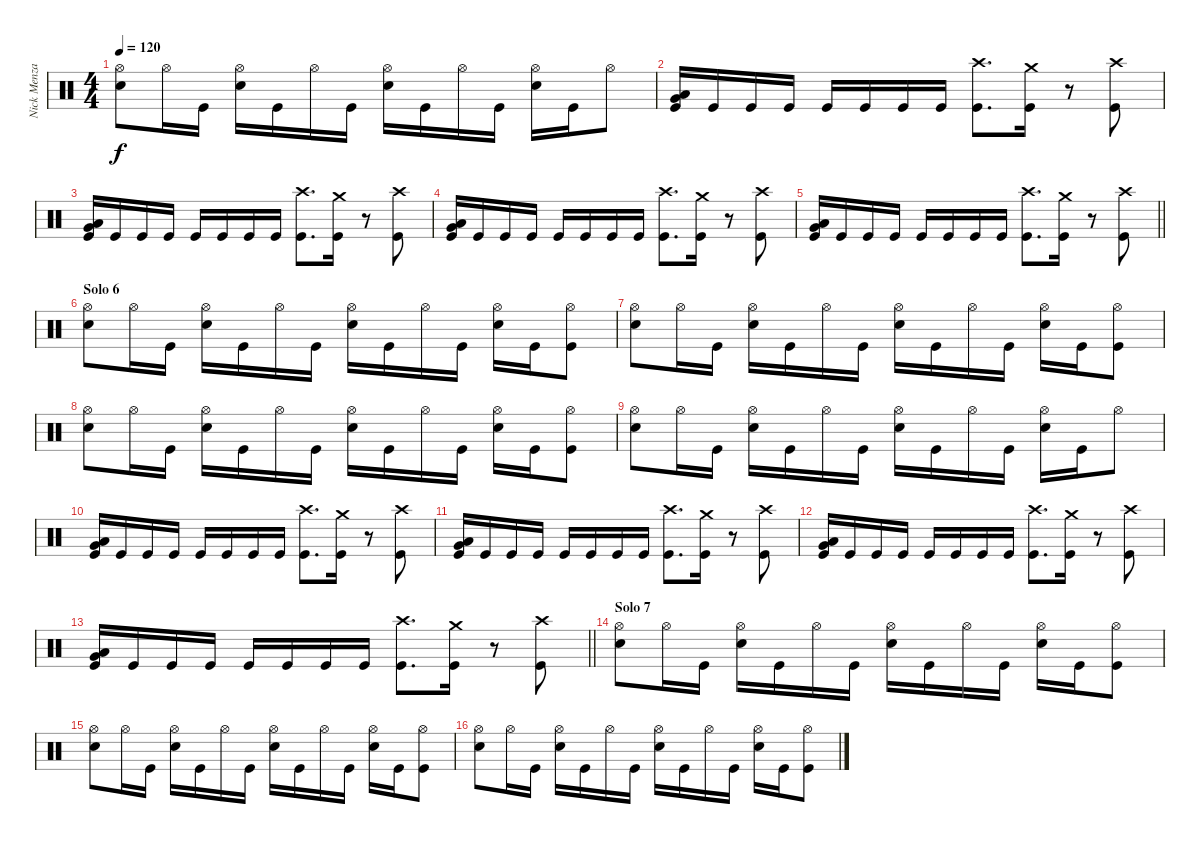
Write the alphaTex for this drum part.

\track ("Nick Menza" "Nick Menza") {instrument percussion}
\staff {score}
\articulation defaults
\ts (4 4)
\tempo 120
\clef neutral
\ks c
("Hi-Hat (open)" "Snare (hit) 2").8{dy f} "Hi-Hat (open)".16 "Kick (hit)".16 ("Hi-Hat (open)" "Snare (hit) 2").16 "Kick (hit)".16 "Hi-Hat (open)".16 "Kick (hit)".16 ("Hi-Hat (open)" "Snare (hit) 2").16 "Kick (hit)".16 "Hi-Hat (open)".16 "Kick (hit)".16 ("Hi-Hat (open)" "Snare (hit) 2").16 "Kick (hit)".16 "Hi-Hat (open)".8 |
("Very Low Tom (hit)" "Low Floor Tom (hit)" "Kick (hit)").16 "Kick (hit)".16 "Kick (hit)".16 "Kick (hit)".16 "Kick (hit)".16 "Kick (hit)".16 "Kick (hit)".16 "Kick (hit)".16 ("Crash high (hit)" "Kick (hit)").8{d} ("Crash medium (hit)" "Kick (hit)").16 r.8 ("Crash high (hit)" "Kick (hit)").8 |
("Very Low Tom (hit)" "Low Floor Tom (hit)" "Kick (hit)").16 "Kick (hit)".16 "Kick (hit)".16 "Kick (hit)".16 "Kick (hit)".16 "Kick (hit)".16 "Kick (hit)".16 "Kick (hit)".16 ("Crash high (hit)" "Kick (hit)").8{d} ("Crash medium (hit)" "Kick (hit)").16 r.8 ("Crash high (hit)" "Kick (hit)").8 |
("Very Low Tom (hit)" "Low Floor Tom (hit)" "Kick (hit)").16 "Kick (hit)".16 "Kick (hit)".16 "Kick (hit)".16 "Kick (hit)".16 "Kick (hit)".16 "Kick (hit)".16 "Kick (hit)".16 ("Crash high (hit)" "Kick (hit)").8{d} ("Crash medium (hit)" "Kick (hit)").16 r.8 ("Crash high (hit)" "Kick (hit)").8 |
\barLineRight lightlight
("Very Low Tom (hit)" "Low Floor Tom (hit)" "Kick (hit)").16 "Kick (hit)".16 "Kick (hit)".16 "Kick (hit)".16 "Kick (hit)".16 "Kick (hit)".16 "Kick (hit)".16 "Kick (hit)".16 ("Crash high (hit)" "Kick (hit)").8{d} ("Crash medium (hit)" "Kick (hit)").16 r.8 ("Crash high (hit)" "Kick (hit)").8 |
\section ("" "Solo 6")
("Hi-Hat (open)" "Snare (hit) 2").8 "Hi-Hat (open)".16 "Kick (hit)".16 ("Hi-Hat (open)" "Snare (hit) 2").16 "Kick (hit)".16 "Hi-Hat (open)".16 "Kick (hit)".16 ("Hi-Hat (open)" "Snare (hit) 2").16 "Kick (hit)".16 "Hi-Hat (open)".16 "Kick (hit)".16 ("Hi-Hat (open)" "Snare (hit) 2").16 "Kick (hit)".16 ("Hi-Hat (open)" "Kick (hit)").8 |
("Hi-Hat (open)" "Snare (hit) 2").8 "Hi-Hat (open)".16 "Kick (hit)".16 ("Hi-Hat (open)" "Snare (hit) 2").16 "Kick (hit)".16 "Hi-Hat (open)".16 "Kick (hit)".16 ("Hi-Hat (open)" "Snare (hit) 2").16 "Kick (hit)".16 "Hi-Hat (open)".16 "Kick (hit)".16 ("Hi-Hat (open)" "Snare (hit) 2").16 "Kick (hit)".16 ("Hi-Hat (open)" "Kick (hit)").8 |
("Hi-Hat (open)" "Snare (hit) 2").8 "Hi-Hat (open)".16 "Kick (hit)".16 ("Hi-Hat (open)" "Snare (hit) 2").16 "Kick (hit)".16 "Hi-Hat (open)".16 "Kick (hit)".16 ("Hi-Hat (open)" "Snare (hit) 2").16 "Kick (hit)".16 "Hi-Hat (open)".16 "Kick (hit)".16 ("Hi-Hat (open)" "Snare (hit) 2").16 "Kick (hit)".16 ("Hi-Hat (open)" "Kick (hit)").8 |
("Hi-Hat (open)" "Snare (hit) 2").8 "Hi-Hat (open)".16 "Kick (hit)".16 ("Hi-Hat (open)" "Snare (hit) 2").16 "Kick (hit)".16 "Hi-Hat (open)".16 "Kick (hit)".16 ("Hi-Hat (open)" "Snare (hit) 2").16 "Kick (hit)".16 "Hi-Hat (open)".16 "Kick (hit)".16 ("Hi-Hat (open)" "Snare (hit) 2").16 "Kick (hit)".16 "Hi-Hat (open)".8 |
("Very Low Tom (hit)" "Low Floor Tom (hit)" "Kick (hit)").16 "Kick (hit)".16 "Kick (hit)".16 "Kick (hit)".16 "Kick (hit)".16 "Kick (hit)".16 "Kick (hit)".16 "Kick (hit)".16 ("Crash high (hit)" "Kick (hit)").8{d} ("Crash medium (hit)" "Kick (hit)").16 r.8 ("Crash high (hit)" "Kick (hit)").8 |
("Very Low Tom (hit)" "Low Floor Tom (hit)" "Kick (hit)").16 "Kick (hit)".16 "Kick (hit)".16 "Kick (hit)".16 "Kick (hit)".16 "Kick (hit)".16 "Kick (hit)".16 "Kick (hit)".16 ("Crash high (hit)" "Kick (hit)").8{d} ("Crash medium (hit)" "Kick (hit)").16 r.8 ("Crash high (hit)" "Kick (hit)").8 |
("Very Low Tom (hit)" "Low Floor Tom (hit)" "Kick (hit)").16 "Kick (hit)".16 "Kick (hit)".16 "Kick (hit)".16 "Kick (hit)".16 "Kick (hit)".16 "Kick (hit)".16 "Kick (hit)".16 ("Crash high (hit)" "Kick (hit)").8{d} ("Crash medium (hit)" "Kick (hit)").16 r.8 ("Crash high (hit)" "Kick (hit)").8 |
\barLineRight lightlight
("Very Low Tom (hit)" "Low Floor Tom (hit)" "Kick (hit)").16 "Kick (hit)".16 "Kick (hit)".16 "Kick (hit)".16 "Kick (hit)".16 "Kick (hit)".16 "Kick (hit)".16 "Kick (hit)".16 ("Crash high (hit)" "Kick (hit)").8{d} ("Crash medium (hit)" "Kick (hit)").16 r.8 ("Crash high (hit)" "Kick (hit)").8 |
\section ("" "Solo 7")
("Hi-Hat (open)" "Snare (hit) 2").8 "Hi-Hat (open)".16 "Kick (hit)".16 ("Hi-Hat (open)" "Snare (hit) 2").16 "Kick (hit)".16 "Hi-Hat (open)".16 "Kick (hit)".16 ("Hi-Hat (open)" "Snare (hit) 2").16 "Kick (hit)".16 "Hi-Hat (open)".16 "Kick (hit)".16 ("Hi-Hat (open)" "Snare (hit) 2").16 "Kick (hit)".16 ("Hi-Hat (open)" "Kick (hit)").8 |
("Hi-Hat (open)" "Snare (hit) 2").8 "Hi-Hat (open)".16 "Kick (hit)".16 ("Hi-Hat (open)" "Snare (hit) 2").16 "Kick (hit)".16 "Hi-Hat (open)".16 "Kick (hit)".16 ("Hi-Hat (open)" "Snare (hit) 2").16 "Kick (hit)".16 "Hi-Hat (open)".16 "Kick (hit)".16 ("Hi-Hat (open)" "Snare (hit) 2").16 "Kick (hit)".16 ("Hi-Hat (open)" "Kick (hit)").8 |
("Hi-Hat (open)" "Snare (hit) 2").8 "Hi-Hat (open)".16 "Kick (hit)".16 ("Hi-Hat (open)" "Snare (hit) 2").16 "Kick (hit)".16 "Hi-Hat (open)".16 "Kick (hit)".16 ("Hi-Hat (open)" "Snare (hit) 2").16 "Kick (hit)".16 "Hi-Hat (open)".16 "Kick (hit)".16 ("Hi-Hat (open)" "Snare (hit) 2").16 "Kick (hit)".16 ("Hi-Hat (open)" "Kick (hit)").8
